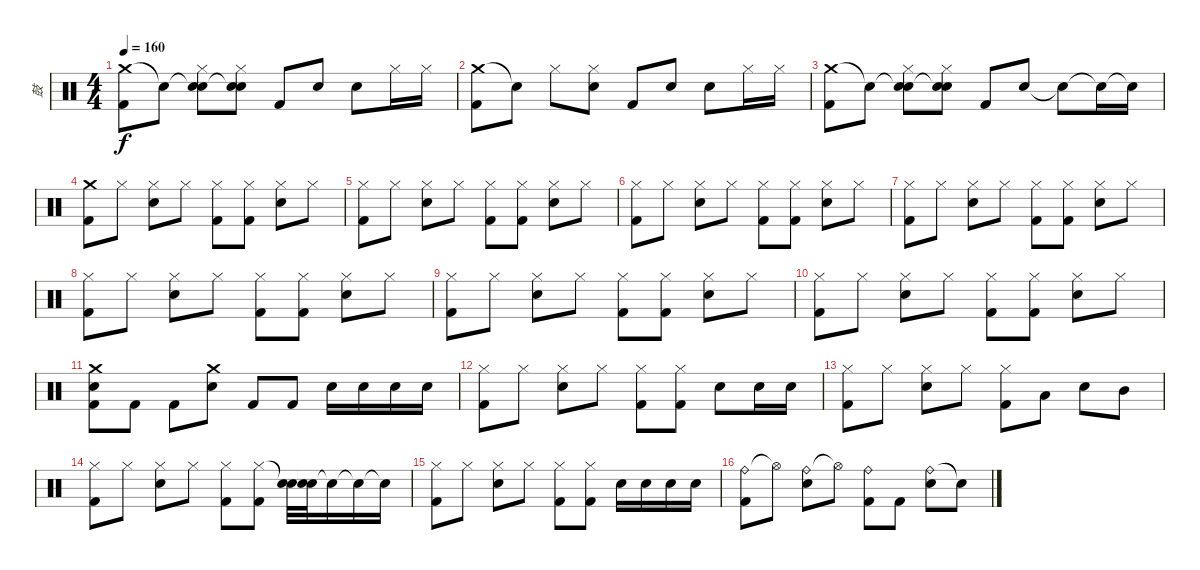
\track ("鼓" "鼓") {instrument percussion}
\staff {score}
\articulation defaults
\ts (4 4)
\tempo 160
\clef neutral
\ks c
("Crash medium (hit)" "Kick (hit) 2").8{dy f} "Snare (hit)"{t}.8 ("Snare (hit)"{t} "Hi-Hat (closed)" "Electric Snare (hit)").8 ("Snare (hit)"{t} "Hi-Hat (closed)" "Electric Snare (hit)").8 "Kick (hit) 2".8 "Electric Snare (hit)".8 "Electric Snare (hit)".8 "Hi-Hat (closed)".16 "Hi-Hat (closed)".16 |
("Crash medium (hit)" "Kick (hit) 2").8 "Snare (hit)"{t}.8 "Hi-Hat (closed)".8 ("Hi-Hat (closed)" "Electric Snare (hit)").8 "Kick (hit) 2".8 "Electric Snare (hit)".8 "Electric Snare (hit)".8 "Hi-Hat (closed)".16 "Hi-Hat (closed)".16 |
("Crash medium (hit)" "Kick (hit) 2").8 "Snare (hit)"{t}.8 ("Snare (hit)"{t} "Hi-Hat (closed)" "Electric Snare (hit)").8 ("Snare (hit)"{t} "Hi-Hat (closed)" "Electric Snare (hit)").8 "Kick (hit) 2".8 "Electric Snare (hit)".8 "Electric Snare (hit)"{t}.8 "Snare (hit)"{t}.16 "Snare (hit)"{t}.16 |
("Crash medium (hit)" "Kick (hit) 2").8 "Hi-Hat (closed)".8 ("Hi-Hat (closed)" "Electric Snare (hit)").8 "Hi-Hat (closed)".8 ("Hi-Hat (closed)" "Kick (hit) 2").8 ("Hi-Hat (closed)" "Kick (hit) 2").8 ("Hi-Hat (closed)" "Electric Snare (hit)").8 "Hi-Hat (closed)".8 |
("Hi-Hat (closed)" "Kick (hit) 2").8 "Hi-Hat (closed)".8 ("Hi-Hat (closed)" "Electric Snare (hit)").8 "Hi-Hat (closed)".8 ("Hi-Hat (closed)" "Kick (hit) 2").8 ("Hi-Hat (closed)" "Kick (hit) 2").8 ("Hi-Hat (closed)" "Electric Snare (hit)").8 "Hi-Hat (closed)".8 |
("Hi-Hat (closed)" "Kick (hit) 2").8 "Hi-Hat (closed)".8 ("Hi-Hat (closed)" "Electric Snare (hit)").8 "Hi-Hat (closed)".8 ("Hi-Hat (closed)" "Kick (hit) 2").8 ("Hi-Hat (closed)" "Kick (hit) 2").8 ("Hi-Hat (closed)" "Electric Snare (hit)").8 "Hi-Hat (closed)".8 |
("Hi-Hat (closed)" "Kick (hit) 2").8 "Hi-Hat (closed)".8 ("Hi-Hat (closed)" "Electric Snare (hit)").8 "Hi-Hat (closed)".8 ("Hi-Hat (closed)" "Kick (hit) 2").8 ("Hi-Hat (closed)" "Kick (hit) 2").8 ("Hi-Hat (closed)" "Electric Snare (hit)").8 "Hi-Hat (closed)".8 |
("Hi-Hat (closed)" "Kick (hit) 2").8 "Hi-Hat (closed)".8 ("Hi-Hat (closed)" "Electric Snare (hit)").8 "Hi-Hat (closed)".8 ("Hi-Hat (closed)" "Kick (hit) 2").8 ("Hi-Hat (closed)" "Kick (hit) 2").8 ("Hi-Hat (closed)" "Electric Snare (hit)").8 "Hi-Hat (closed)".8 |
("Hi-Hat (closed)" "Kick (hit) 2").8 "Hi-Hat (closed)".8 ("Hi-Hat (closed)" "Electric Snare (hit)").8 "Hi-Hat (closed)".8 ("Hi-Hat (closed)" "Kick (hit) 2").8 ("Hi-Hat (closed)" "Kick (hit) 2").8 ("Hi-Hat (closed)" "Electric Snare (hit)").8 "Hi-Hat (closed)".8 |
("Hi-Hat (closed)" "Kick (hit) 2").8 "Hi-Hat (closed)".8 ("Hi-Hat (closed)" "Electric Snare (hit)").8 "Hi-Hat (closed)".8 ("Hi-Hat (closed)" "Kick (hit) 2").8 ("Hi-Hat (closed)" "Kick (hit) 2").8 ("Hi-Hat (closed)" "Electric Snare (hit)").8 "Hi-Hat (closed)".8 |
("Crash medium (hit)" "Electric Snare (hit)" "Kick (hit) 2").8 "Kick (hit) 2".8 "Kick (hit) 2".8 ("Crash medium (hit)" "Electric Snare (hit)").8 "Kick (hit) 2".8 "Kick (hit) 2".8 "Electric Snare (hit)".16 "Electric Snare (hit)".16 "Electric Snare (hit)".16 "Electric Snare (hit)".16 |
("Hi-Hat (closed)" "Kick (hit) 2").8 "Hi-Hat (closed)".8 ("Hi-Hat (closed)" "Electric Snare (hit)").8 "Hi-Hat (closed)".8 ("Hi-Hat (closed)" "Kick (hit) 2").8 ("Hi-Hat (closed)" "Kick (hit) 2").8 "Electric Snare (hit)".8 "Electric Snare (hit)".16 "Electric Snare (hit)".16 |
("Hi-Hat (closed)" "Kick (hit) 2").8 "Hi-Hat (closed)".8 ("Hi-Hat (closed)" "Electric Snare (hit)").8 "Hi-Hat (closed)".8 ("Hi-Hat (closed)" "Kick (hit) 2").8 "Low Tom (hit)".8 "Electric Snare (hit)".8 "Mid Tom (hit)".8 |
("Hi-Hat (closed)" "Kick (hit) 2").8 "Hi-Hat (closed)".8 ("Hi-Hat (closed)" "Electric Snare (hit)").8 "Hi-Hat (closed)".8 ("Hi-Hat (closed)" "Kick (hit) 2").8 ("Hi-Hat (closed)" "Kick (hit) 2").8 ("Snare (hit)"{t} "Electric Snare (hit)").32 ("Snare (hit)"{t} "Electric Snare (hit)").32 "Snare (hit)"{t}.16 "Electric Snare (hit)"{t}.16 "Electric Snare (hit)"{t}.16 |
("Hi-Hat (closed)" "Kick (hit) 2").8 "Hi-Hat (closed)".8 ("Hi-Hat (closed)" "Electric Snare (hit)").8 "Hi-Hat (closed)".8 ("Hi-Hat (closed)" "Kick (hit) 2").8 ("Hi-Hat (closed)" "Kick (hit) 2").8 "Electric Snare (hit)".16 "Electric Snare (hit)".16 "Electric Snare (hit)".16 "Electric Snare (hit)".16 |
("Ride (bell)" "Kick (hit) 2").8 "Hi-Hat (open)"{t}.8 ("Ride (bell)" "Electric Snare (hit)").8 "Hi-Hat (open)"{t}.8 ("Ride (bell)" "Kick (hit) 2").8 "Kick (hit) 2".8 ("Ride (bell)" "Electric Snare (hit)").8 "Snare (hit)"{t}.8
